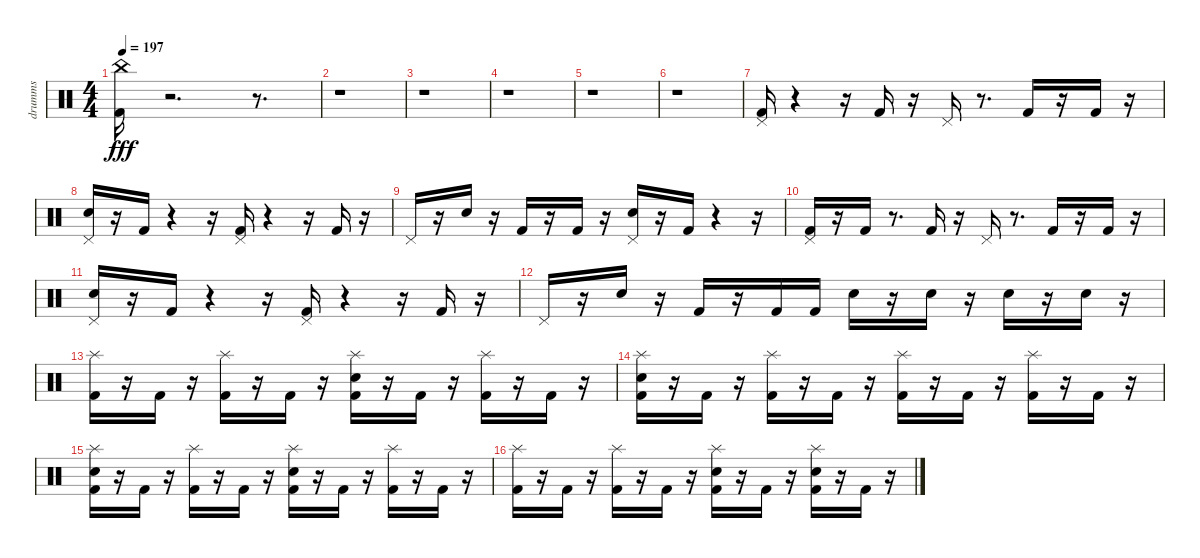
\track ("drumms" "drumms") {instrument percussion}
\staff {score}
\articulation defaults
\ts (4 4)
\tempo 197
\clef neutral
\ks c
("Kick (hit) 2" "China (hit)").16{dy fff} r.2{d} r.8{d} |
r.1 |
r.1 |
r.1 |
r.1 |
r.1 |
("Kick (hit) 2" "Pedal Hi-Hat (hit)").16 r.4 r.16 "Kick (hit) 2".16 r.16 "Pedal Hi-Hat (hit)".16 r.8{d} "Kick (hit) 2".16 r.16 "Kick (hit) 2".16 r.16 |
("Snare (hit) 2" "Pedal Hi-Hat (hit)").16 r.16 "Kick (hit) 2".16 r.4 r.16 ("Kick (hit) 2" "Pedal Hi-Hat (hit)").16 r.4 r.16 "Kick (hit) 2".16 r.16 |
"Pedal Hi-Hat (hit)".16 r.16 "Snare (hit) 2".16 r.16 "Kick (hit) 2".16 r.16 "Kick (hit) 2".16 r.16 ("Snare (hit) 2" "Pedal Hi-Hat (hit)").16 r.16 "Kick (hit) 2".16 r.4 r.16 |
("Kick (hit) 2" "Pedal Hi-Hat (hit)").16 r.16 "Kick (hit) 2".16 r.8{d} "Kick (hit) 2".16 r.16 "Pedal Hi-Hat (hit)".16 r.8{d} "Kick (hit) 2".16 r.16 "Kick (hit) 2".16 r.16 |
("Snare (hit) 2" "Pedal Hi-Hat (hit)").16 r.16 "Kick (hit) 2".16 r.4 r.16 ("Kick (hit) 2" "Pedal Hi-Hat (hit)").16 r.4 r.16 "Kick (hit) 2".16 r.16 |
"Pedal Hi-Hat (hit)".16 r.16 "Snare (hit) 2".16 r.16 "Kick (hit) 2".16 r.16 "Kick (hit) 2".16 "Kick (hit) 2".16 "Snare (hit) 2".16 r.16 "Snare (hit) 2".16 r.16 "Snare (hit) 2".16 r.16 "Snare (hit) 2".16 r.16 |
("Kick (hit) 2" "Splash (hit)").16 r.16 "Kick (hit) 2".16 r.16 ("Kick (hit) 2" "Splash (hit)").16 r.16 "Kick (hit) 2".16 r.16 ("Snare (hit) 2" "Splash (hit)" "Kick (hit) 2").16 r.16 "Kick (hit) 2".16 r.16 ("Kick (hit) 2" "Splash (hit)").16 r.16 "Kick (hit) 2".16 r.16 |
("Snare (hit) 2" "Splash (hit)" "Kick (hit) 2").16 r.16 "Kick (hit) 2".16 r.16 ("Kick (hit) 2" "Splash (hit)").16 r.16 "Kick (hit) 2".16 r.16 ("Kick (hit) 2" "Splash (hit)").16 r.16 "Kick (hit) 2".16 r.16 ("Kick (hit) 2" "Splash (hit)").16 r.16 "Kick (hit) 2".16 r.16 |
("Snare (hit) 2" "Splash (hit)" "Kick (hit) 2").16 r.16 "Kick (hit) 2".16 r.16 ("Kick (hit) 2" "Splash (hit)").16 r.16 "Kick (hit) 2".16 r.16 ("Snare (hit) 2" "Splash (hit)" "Kick (hit) 2").16 r.16 "Kick (hit) 2".16 r.16 ("Kick (hit) 2" "Splash (hit)").16 r.16 "Kick (hit) 2".16 r.16 |
("Kick (hit) 2" "Splash (hit)").16 r.16 "Kick (hit) 2".16 r.16 ("Kick (hit) 2" "Splash (hit)").16 r.16 "Kick (hit) 2".16 r.16 ("Kick (hit) 2" "Snare (hit) 2" "Splash (hit)").16 r.16 "Kick (hit) 2".16 r.16 ("Kick (hit) 2" "Snare (hit) 2" "Splash (hit)").16 r.16 "Kick (hit) 2".16 r.16
